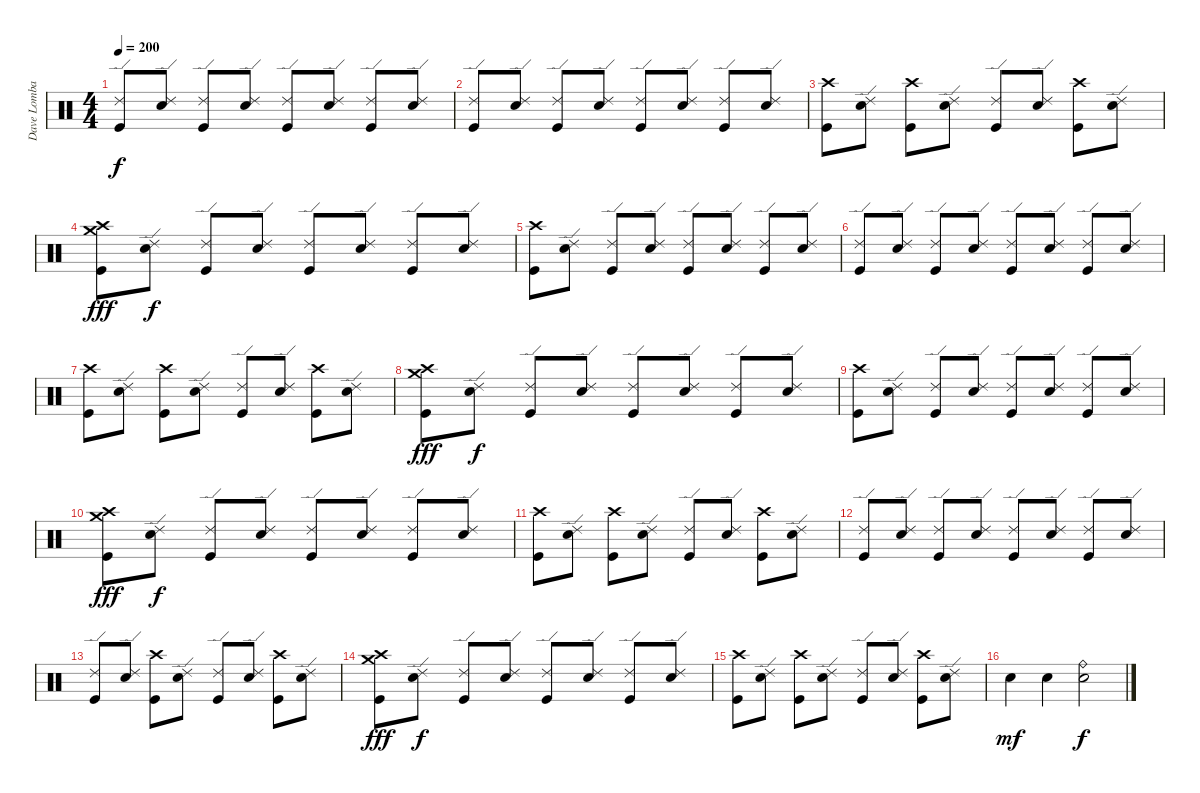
\track ("Dave Lombardo:" "Dave Lomba") {instrument percussion}
\staff {score}
\articulation defaults
\ts (4 4)
\tempo 200
\clef neutral
\ks c
("Ride (edge) 2" "Kick (hit)").8{dy f} ("Ride (edge) 2" "Snare (hit) 2").8 ("Ride (edge) 2" "Kick (hit)").8 ("Ride (edge) 2" "Snare (hit) 2").8 ("Ride (edge) 2" "Kick (hit)").8 ("Ride (edge) 2" "Snare (hit) 2").8 ("Ride (edge) 2" "Kick (hit)").8 ("Ride (edge) 2" "Snare (hit) 2").8 |
("Ride (edge) 2" "Kick (hit)").8 ("Ride (edge) 2" "Snare (hit) 2").8 ("Ride (edge) 2" "Kick (hit)").8 ("Ride (edge) 2" "Snare (hit) 2").8 ("Ride (edge) 2" "Kick (hit)").8 ("Ride (edge) 2" "Snare (hit) 2").8 ("Ride (edge) 2" "Kick (hit)").8 ("Ride (edge) 2" "Snare (hit) 2").8 |
("Crash high (hit)" "Kick (hit)").8 ("Ride (edge) 2" "Snare (hit) 2").8 ("Crash high (hit)" "Kick (hit)").8 ("Ride (edge) 2" "Snare (hit) 2").8 ("Ride (edge) 2" "Kick (hit)").8 ("Ride (edge) 2" "Snare (hit) 2").8 ("Crash high (hit)" "Kick (hit)").8 ("Ride (edge) 2" "Snare (hit) 2").8 |
("Crash medium (hit)" "Crash high (hit)" "Kick (hit)").8{dy fff} ("Ride (edge) 2" "Snare (hit) 2").8{dy f} ("Ride (edge) 2" "Kick (hit)").8 ("Ride (edge) 2" "Snare (hit) 2").8 ("Ride (edge) 2" "Kick (hit)").8 ("Ride (edge) 2" "Snare (hit) 2").8 ("Ride (edge) 2" "Kick (hit)").8 ("Ride (edge) 2" "Snare (hit) 2").8 |
("Crash high (hit)" "Kick (hit)").8 ("Ride (edge) 2" "Snare (hit) 2").8 ("Ride (edge) 2" "Kick (hit)").8 ("Ride (edge) 2" "Snare (hit) 2").8 ("Ride (edge) 2" "Kick (hit)").8 ("Ride (edge) 2" "Snare (hit) 2").8 ("Ride (edge) 2" "Kick (hit)").8 ("Ride (edge) 2" "Snare (hit) 2").8 |
("Ride (edge) 2" "Kick (hit)").8 ("Ride (edge) 2" "Snare (hit) 2").8 ("Ride (edge) 2" "Kick (hit)").8 ("Ride (edge) 2" "Snare (hit) 2").8 ("Ride (edge) 2" "Kick (hit)").8 ("Ride (edge) 2" "Snare (hit) 2").8 ("Ride (edge) 2" "Kick (hit)").8 ("Ride (edge) 2" "Snare (hit) 2").8 |
("Crash high (hit)" "Kick (hit)").8 ("Ride (edge) 2" "Snare (hit) 2").8 ("Crash high (hit)" "Kick (hit)").8 ("Ride (edge) 2" "Snare (hit) 2").8 ("Ride (edge) 2" "Kick (hit)").8 ("Ride (edge) 2" "Snare (hit) 2").8 ("Crash high (hit)" "Kick (hit)").8 ("Ride (edge) 2" "Snare (hit) 2").8 |
("Crash medium (hit)" "Crash high (hit)" "Kick (hit)").8{dy fff} ("Ride (edge) 2" "Snare (hit) 2").8{dy f} ("Ride (edge) 2" "Kick (hit)").8 ("Ride (edge) 2" "Snare (hit) 2").8 ("Ride (edge) 2" "Kick (hit)").8 ("Ride (edge) 2" "Snare (hit) 2").8 ("Ride (edge) 2" "Kick (hit)").8 ("Ride (edge) 2" "Snare (hit) 2").8 |
("Crash high (hit)" "Kick (hit)").8 ("Ride (edge) 2" "Snare (hit) 2").8 ("Ride (edge) 2" "Kick (hit)").8 ("Ride (edge) 2" "Snare (hit) 2").8 ("Ride (edge) 2" "Kick (hit)").8 ("Ride (edge) 2" "Snare (hit) 2").8 ("Ride (edge) 2" "Kick (hit)").8 ("Ride (edge) 2" "Snare (hit) 2").8 |
("Crash medium (hit)" "Crash high (hit)" "Kick (hit)").8{dy fff} ("Ride (edge) 2" "Snare (hit) 2").8{dy f} ("Ride (edge) 2" "Kick (hit)").8 ("Ride (edge) 2" "Snare (hit) 2").8 ("Ride (edge) 2" "Kick (hit)").8 ("Ride (edge) 2" "Snare (hit) 2").8 ("Ride (edge) 2" "Kick (hit)").8 ("Ride (edge) 2" "Snare (hit) 2").8 |
("Crash high (hit)" "Kick (hit)").8 ("Ride (edge) 2" "Snare (hit) 2").8 ("Crash high (hit)" "Kick (hit)").8 ("Ride (edge) 2" "Snare (hit) 2").8 ("Ride (edge) 2" "Kick (hit)").8 ("Ride (edge) 2" "Snare (hit) 2").8 ("Crash high (hit)" "Kick (hit)").8 ("Ride (edge) 2" "Snare (hit) 2").8 |
("Ride (edge) 2" "Kick (hit)").8 ("Ride (edge) 2" "Snare (hit) 2").8 ("Ride (edge) 2" "Kick (hit)").8 ("Ride (edge) 2" "Snare (hit) 2").8 ("Ride (edge) 2" "Kick (hit)").8 ("Ride (edge) 2" "Snare (hit) 2").8 ("Ride (edge) 2" "Kick (hit)").8 ("Ride (edge) 2" "Snare (hit) 2").8 |
("Ride (edge) 2" "Kick (hit)").8 ("Ride (edge) 2" "Snare (hit) 2").8 ("Crash high (hit)" "Kick (hit)").8 ("Ride (edge) 2" "Snare (hit) 2").8 ("Ride (edge) 2" "Kick (hit)").8 ("Ride (edge) 2" "Snare (hit) 2").8 ("Crash high (hit)" "Kick (hit)").8 ("Ride (edge) 2" "Snare (hit) 2").8 |
("Crash medium (hit)" "Crash high (hit)" "Kick (hit)").8{dy fff} ("Ride (edge) 2" "Snare (hit) 2").8{dy f} ("Ride (edge) 2" "Kick (hit)").8 ("Ride (edge) 2" "Snare (hit) 2").8 ("Ride (edge) 2" "Kick (hit)").8 ("Ride (edge) 2" "Snare (hit) 2").8 ("Ride (edge) 2" "Kick (hit)").8 ("Ride (edge) 2" "Snare (hit) 2").8 |
("Crash high (hit)" "Kick (hit)").8 ("Ride (edge) 2" "Snare (hit) 2").8 ("Crash high (hit)" "Kick (hit)").8 ("Ride (edge) 2" "Snare (hit) 2").8 ("Ride (edge) 2" "Kick (hit)").8 ("Ride (edge) 2" "Snare (hit) 2").8 ("Crash high (hit)" "Kick (hit)").8 ("Ride (edge) 2" "Snare (hit) 2").8 |
"Snare (hit) 2".4{dy mf} "Snare (hit) 2".4 ("Ride (bell)" "Electric Snare (hit)").2{dy f}
